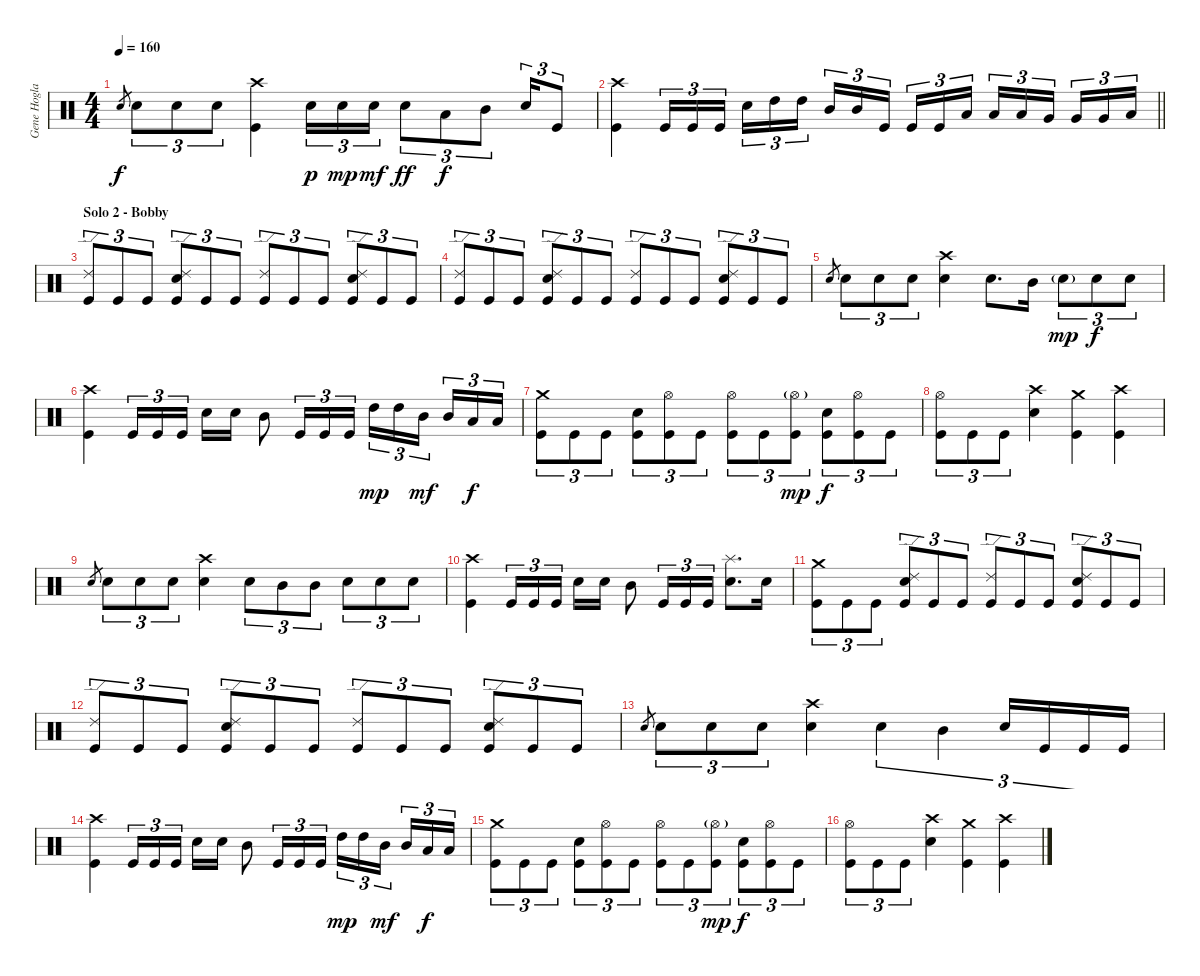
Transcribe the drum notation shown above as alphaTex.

\track ("Gene Hoglan" "Gene Hogla") {instrument percussion}
\staff {score}
\articulation defaults
\ts (4 4)
\tempo 160
\clef neutral
\ks c "Electric Snare (hit)".8{gr dy f} "Electric Snare (hit)".8{tu (3 2)} "Electric Snare (hit)".8{tu (3 2)} "Electric Snare (hit)".8{tu (3 2)}
("Crash high (hit)" "Kick (hit)").4 "Electric Snare (hit)".16{tu (3 2) dy p} "Electric Snare (hit)".16{tu (3 2) dy mp} "Electric Snare (hit)".16{tu (3 2) dy mf} "Electric Snare (hit)".8{tu (3 2) dy ff} "Low Tom (hit)".8{tu (3 2) dy f} "Mid Tom (hit)".8{tu (3 2)} "Electric Snare (hit)".16{tu (3 2)} "Kick (hit)".8{tu (3 2)} |
\barLineRight lightlight
("Crash high (hit)" "Kick (hit)").4 "Kick (hit)".16{tu (3 2)} "Kick (hit)".16{tu (3 2)} "Kick (hit)".16{tu (3 2)} "Electric Snare (hit)".16{tu (3 2)} "High Tom (hit)".16{tu (3 2)} "High Tom (hit)".16{tu (3 2)} "Mid Tom (hit)".16{tu (3 2)} "Mid Tom (hit)".16{tu (3 2)} "Kick (hit)".16{tu (3 2)} "Kick (hit)".16{tu (3 2)} "Kick (hit)".16{tu (3 2)} "Low Tom (hit)".16{tu (3 2)} "Low Tom (hit)".16{tu (3 2)} "Low Tom (hit)".16{tu (3 2)} "Very Low Tom (hit)".16{tu (3 2)} "Very Low Tom (hit)".16{tu (3 2)} "Very Low Tom (hit)".16{tu (3 2)} "Low Floor Tom (hit)".16{tu (3 2)} |
\section ("" "Solo 2 - Bobby")
("Ride (edge) 2" "Kick (hit)").8{tu (3 2)} "Kick (hit)".8{tu (3 2)} "Kick (hit)".8{tu (3 2)} ("Ride (edge) 2" "Electric Snare (hit)" "Kick (hit)").8{tu (3 2)} "Kick (hit)".8{tu (3 2)} "Kick (hit)".8{tu (3 2)} ("Ride (edge) 2" "Kick (hit)").8{tu (3 2)} "Kick (hit)".8{tu (3 2)} "Kick (hit)".8{tu (3 2)} ("Ride (edge) 2" "Electric Snare (hit)" "Kick (hit)").8{tu (3 2)} "Kick (hit)".8{tu (3 2)} "Kick (hit)".8{tu (3 2)} |
("Ride (edge) 2" "Kick (hit)").8{tu (3 2)} "Kick (hit)".8{tu (3 2)} "Kick (hit)".8{tu (3 2)} ("Ride (edge) 2" "Electric Snare (hit)" "Kick (hit)").8{tu (3 2)} "Kick (hit)".8{tu (3 2)} "Kick (hit)".8{tu (3 2)} ("Ride (edge) 2" "Kick (hit)").8{tu (3 2)} "Kick (hit)".8{tu (3 2)} "Kick (hit)".8{tu (3 2)} ("Ride (edge) 2" "Electric Snare (hit)" "Kick (hit)").8{tu (3 2)} "Kick (hit)".8{tu (3 2)} "Kick (hit)".8{tu (3 2)} |
"Electric Snare (hit)".8{gr} "Electric Snare (hit)".8{tu (3 2)} "Electric Snare (hit)".8{tu (3 2)} "Electric Snare (hit)".8{tu (3 2)} ("Crash high (hit)" "Electric Snare (hit)").4 "Electric Snare (hit)".8{d} "Mid Tom (hit)".16 "Electric Snare (hit)"{g}.8{tu (3 2) dy mp} "Electric Snare (hit)".8{tu (3 2) dy f} "Electric Snare (hit)".8{tu (3 2)} |
("Crash high (hit)" "Kick (hit)").4 "Kick (hit)".16{tu (3 2)} "Kick (hit)".16{tu (3 2)} "Kick (hit)".16{tu (3 2)} "Electric Snare (hit)".16 "Electric Snare (hit)".16 "Mid Tom (hit)".8 "Kick (hit)".16{tu (3 2)} "Kick (hit)".16{tu (3 2)} "Kick (hit)".16{tu (3 2)} "High Tom (hit)".16{tu (3 2) dy mp} "High Tom (hit)".16{tu (3 2)} "Mid Tom (hit)".16{tu (3 2) dy mf} "Mid Tom (hit)".16{tu (3 2)} "Low Tom (hit)".16{tu (3 2) dy f} "Low Tom (hit)".16{tu (3 2)} |
("Crash medium (hit)" "Kick (hit)").8{tu (3 2)} "Kick (hit)".8{tu (3 2)} "Kick (hit)".8{tu (3 2)} ("Electric Snare (hit)" "Kick (hit)").8{tu (3 2)} ("Hi-Hat (open)" "Kick (hit)").8{tu (3 2)} "Kick (hit)".8{tu (3 2)} ("Hi-Hat (open)" "Kick (hit)").8{tu (3 2)} "Kick (hit)".8{tu (3 2)} ("Hi-Hat (open)"{g} "Kick (hit)").8{tu (3 2) dy mp} ("Electric Snare (hit)" "Kick (hit)").8{tu (3 2) dy f} ("Hi-Hat (open)" "Kick (hit)").8{tu (3 2)} "Kick (hit)".8{tu (3 2)} |
("Hi-Hat (open)" "Kick (hit)").8{tu (3 2)} "Kick (hit)".8{tu (3 2)} "Kick (hit)".8{tu (3 2)} ("Crash high (hit)" "Electric Snare (hit)").4 ("Crash medium (hit)" "Kick (hit)").4 ("Crash high (hit)" "Kick (hit)").4 |
"Electric Snare (hit)".8{gr} "Electric Snare (hit)".8{tu (3 2)} "Electric Snare (hit)".8{tu (3 2)} "Electric Snare (hit)".8{tu (3 2)} ("Crash high (hit)" "Electric Snare (hit)").4 "Electric Snare (hit)".8{tu (3 2)} "Mid Tom (hit)".8{tu (3 2)} "Mid Tom (hit)".8{tu (3 2)} "Electric Snare (hit)".8{tu (3 2)} "Electric Snare (hit)".8{tu (3 2)} "Electric Snare (hit)".8{tu (3 2)} |
("Crash high (hit)" "Kick (hit)").4 "Kick (hit)".16{tu (3 2)} "Kick (hit)".16{tu (3 2)} "Kick (hit)".16{tu (3 2)} "Electric Snare (hit)".16 "Electric Snare (hit)".16 "Mid Tom (hit)".8 "Kick (hit)".16{tu (3 2)} "Kick (hit)".16{tu (3 2)} "Kick (hit)".16{tu (3 2)} ("Splash (hit)" "Electric Snare (hit)").8{d} "Electric Snare (hit)".16 |
("Crash medium (hit)" "Kick (hit)").8{tu (3 2)} "Kick (hit)".8{tu (3 2)} "Kick (hit)".8{tu (3 2)} ("Ride (edge) 2" "Electric Snare (hit)" "Kick (hit)").8{tu (3 2)} "Kick (hit)".8{tu (3 2)} "Kick (hit)".8{tu (3 2)} ("Ride (edge) 2" "Kick (hit)").8{tu (3 2)} "Kick (hit)".8{tu (3 2)} "Kick (hit)".8{tu (3 2)} ("Ride (edge) 2" "Electric Snare (hit)" "Kick (hit)").8{tu (3 2)} "Kick (hit)".8{tu (3 2)} "Kick (hit)".8{tu (3 2)} |
("Ride (edge) 2" "Kick (hit)").8{tu (3 2)} "Kick (hit)".8{tu (3 2)} "Kick (hit)".8{tu (3 2)} ("Ride (edge) 2" "Electric Snare (hit)" "Kick (hit)").8{tu (3 2)} "Kick (hit)".8{tu (3 2)} "Kick (hit)".8{tu (3 2)} ("Ride (edge) 2" "Kick (hit)").8{tu (3 2)} "Kick (hit)".8{tu (3 2)} "Kick (hit)".8{tu (3 2)} ("Ride (edge) 2" "Electric Snare (hit)" "Kick (hit)").8{tu (3 2)} "Kick (hit)".8{tu (3 2)} "Kick (hit)".8{tu (3 2)} |
"Electric Snare (hit)".8{gr} "Electric Snare (hit)".8{tu (3 2)} "Electric Snare (hit)".8{tu (3 2)} "Electric Snare (hit)".8{tu (3 2)} ("Crash high (hit)" "Electric Snare (hit)").4 "Electric Snare (hit)".4{tu (3 2)} "Mid Tom (hit)".4{tu (3 2)} "Electric Snare (hit)".16{tu (3 2)} "Kick (hit)".16{tu (3 2)} "Kick (hit)".16{tu (3 2)} "Kick (hit)".16{tu (3 2)} |
("Crash high (hit)" "Kick (hit)").4 "Kick (hit)".16{tu (3 2)} "Kick (hit)".16{tu (3 2)} "Kick (hit)".16{tu (3 2)} "Electric Snare (hit)".16 "Electric Snare (hit)".16 "Mid Tom (hit)".8 "Kick (hit)".16{tu (3 2)} "Kick (hit)".16{tu (3 2)} "Kick (hit)".16{tu (3 2)} "High Tom (hit)".16{tu (3 2) dy mp} "High Tom (hit)".16{tu (3 2)} "Mid Tom (hit)".16{tu (3 2) dy mf} "Mid Tom (hit)".16{tu (3 2)} "Low Tom (hit)".16{tu (3 2) dy f} "Low Tom (hit)".16{tu (3 2)} |
("Crash medium (hit)" "Kick (hit)").8{tu (3 2)} "Kick (hit)".8{tu (3 2)} "Kick (hit)".8{tu (3 2)} ("Electric Snare (hit)" "Kick (hit)").8{tu (3 2)} ("Hi-Hat (open)" "Kick (hit)").8{tu (3 2)} "Kick (hit)".8{tu (3 2)} ("Hi-Hat (open)" "Kick (hit)").8{tu (3 2)} "Kick (hit)".8{tu (3 2)} ("Hi-Hat (open)"{g} "Kick (hit)").8{tu (3 2) dy mp} ("Electric Snare (hit)" "Kick (hit)").8{tu (3 2) dy f} ("Hi-Hat (open)" "Kick (hit)").8{tu (3 2)} "Kick (hit)".8{tu (3 2)} |
("Hi-Hat (open)" "Kick (hit)").8{tu (3 2)} "Kick (hit)".8{tu (3 2)} "Kick (hit)".8{tu (3 2)} ("Crash high (hit)" "Electric Snare (hit)").4 ("Crash medium (hit)" "Kick (hit)").4 ("Crash high (hit)" "Kick (hit)").4
